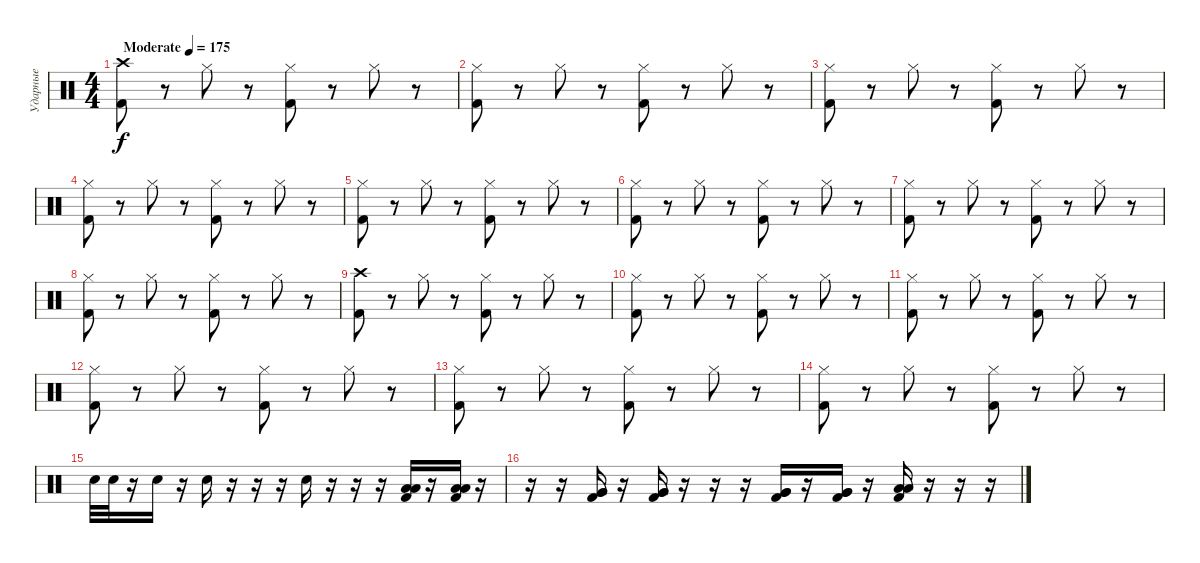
\track ("Ударные" "Ударные") {instrument percussion}
\staff {score}
\articulation defaults
\ts (4 4)
\tempo (175 "Moderate")
\clef neutral
\ks c
("Kick (hit) 2" "Crash high (hit)").8{dy f} r.8 "Hi-Hat (closed)".8 r.8 ("Kick (hit) 2" "Hi-Hat (closed)").8 r.8 "Hi-Hat (closed)".8 r.8 |
("Kick (hit) 2" "Hi-Hat (closed)").8 r.8 "Hi-Hat (closed)".8 r.8 ("Kick (hit) 2" "Hi-Hat (closed)").8 r.8 "Hi-Hat (closed)".8 r.8 |
("Kick (hit) 2" "Hi-Hat (closed)").8 r.8 "Hi-Hat (closed)".8 r.8 ("Kick (hit) 2" "Hi-Hat (closed)").8 r.8 "Hi-Hat (closed)".8 r.8 |
("Kick (hit) 2" "Hi-Hat (closed)").8 r.8 "Hi-Hat (closed)".8 r.8 ("Kick (hit) 2" "Hi-Hat (closed)").8 r.8 "Hi-Hat (closed)".8 r.8 |
("Kick (hit) 2" "Hi-Hat (closed)").8 r.8 "Hi-Hat (closed)".8 r.8 ("Kick (hit) 2" "Hi-Hat (closed)").8 r.8 "Hi-Hat (closed)".8 r.8 |
("Kick (hit) 2" "Hi-Hat (closed)").8 r.8 "Hi-Hat (closed)".8 r.8 ("Kick (hit) 2" "Hi-Hat (closed)").8 r.8 "Hi-Hat (closed)".8 r.8 |
("Kick (hit) 2" "Hi-Hat (closed)").8 r.8 "Hi-Hat (closed)".8 r.8 ("Kick (hit) 2" "Hi-Hat (closed)").8 r.8 "Hi-Hat (closed)".8 r.8 |
("Kick (hit) 2" "Hi-Hat (closed)").8 r.8 "Hi-Hat (closed)".8 r.8 ("Kick (hit) 2" "Hi-Hat (closed)").8 r.8 "Hi-Hat (closed)".8 r.8 |
("Kick (hit) 2" "Crash high (hit)").8 r.8 "Hi-Hat (closed)".8 r.8 ("Kick (hit) 2" "Hi-Hat (closed)").8 r.8 "Hi-Hat (closed)".8 r.8 |
("Kick (hit) 2" "Hi-Hat (closed)").8 r.8 "Hi-Hat (closed)".8 r.8 ("Kick (hit) 2" "Hi-Hat (closed)").8 r.8 "Hi-Hat (closed)".8 r.8 |
("Kick (hit) 2" "Hi-Hat (closed)").8 r.8 "Hi-Hat (closed)".8 r.8 ("Kick (hit) 2" "Hi-Hat (closed)").8 r.8 "Hi-Hat (closed)".8 r.8 |
("Kick (hit) 2" "Hi-Hat (closed)").8 r.8 "Hi-Hat (closed)".8 r.8 ("Kick (hit) 2" "Hi-Hat (closed)").8 r.8 "Hi-Hat (closed)".8 r.8 |
("Kick (hit) 2" "Hi-Hat (closed)").8 r.8 "Hi-Hat (closed)".8 r.8 ("Kick (hit) 2" "Hi-Hat (closed)").8 r.8 "Hi-Hat (closed)".8 r.8 |
("Kick (hit) 2" "Hi-Hat (closed)").8 r.8 "Hi-Hat (closed)".8 r.8 ("Kick (hit) 2" "Hi-Hat (closed)").8 r.8 "Hi-Hat (closed)".8 r.8 |
"Electric Snare (hit)".32 "Electric Snare (hit)".32 r.16 "Electric Snare (hit)".16 r.16 "Electric Snare (hit)".16 r.16 r.16 r.16 "Electric Snare (hit)".16 r.16 r.16 r.16 ("Low Tom (hit)" "Low Tom (hit)" "Kick (hit) 2").16 r.16 ("Low Tom (hit)" "Low Tom (hit)" "Kick (hit) 2").16 r.16 |
r.16 r.16 ("Very Low Tom (hit)" "Very Low Tom (hit)" "Kick (hit) 2").16 r.16 ("Very Low Tom (hit)" "Very Low Tom (hit)" "Kick (hit) 2").16 r.16 r.16 r.16 ("Very Low Tom (hit)" "Very Low Tom (hit)" "Kick (hit) 2").16 r.16 ("Very Low Tom (hit)" "Very Low Tom (hit)" "Kick (hit) 2").16 r.16 ("Low Floor Tom (hit)" "Low Floor Tom (hit)" "Kick (hit) 2").16 r.16 r.16 r.16
